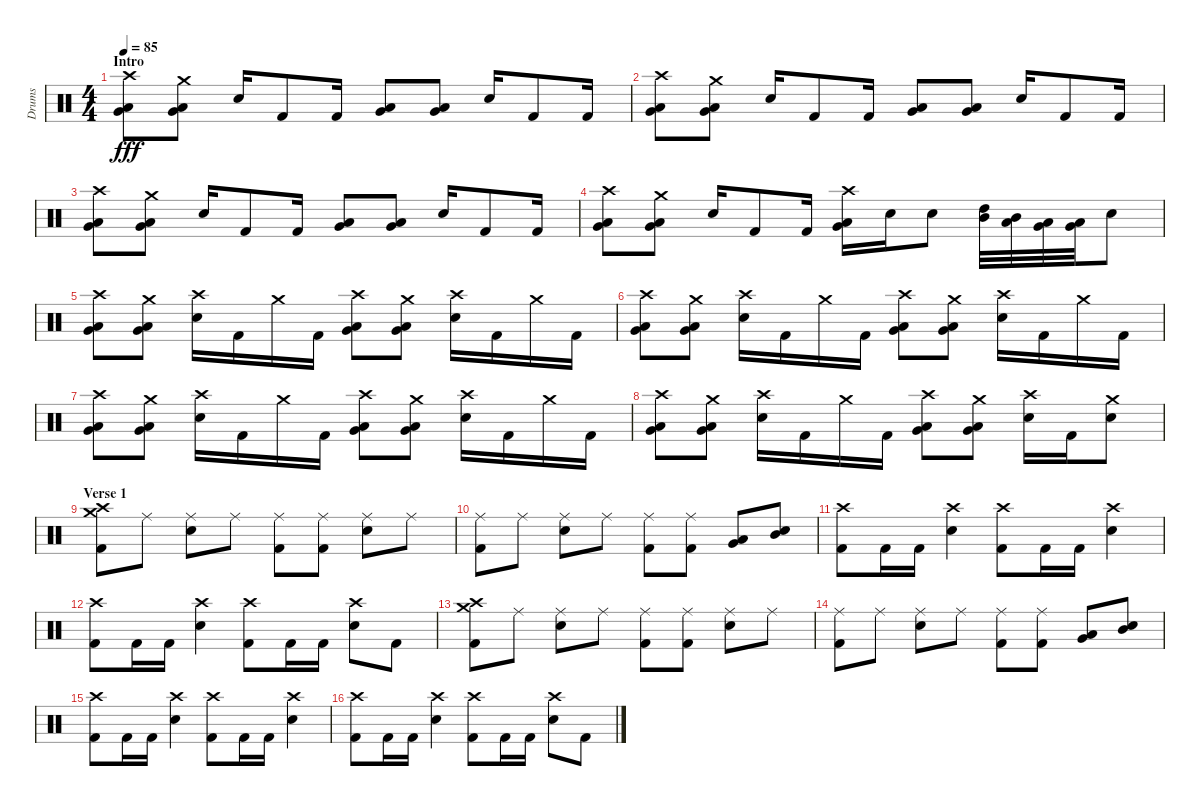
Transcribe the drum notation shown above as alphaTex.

\track ("Drums" "Drums") {instrument percussion}
\staff {score}
\articulation defaults
\ts (4 4)
\section ("" "Intro")
\tempo 85
\clef neutral
\ks c
("Crash high (hit)" "Very Low Tom (hit)" "Low Floor Tom (hit)").8{dy fff} ("Crash medium (hit)" "Very Low Tom (hit)" "Low Floor Tom (hit)").8 "Electric Snare (hit)".16 "Kick (hit) 2".8 "Kick (hit) 2".16 ("Very Low Tom (hit)" "Low Floor Tom (hit)").8 ("Very Low Tom (hit)" "Low Floor Tom (hit)").8 "Electric Snare (hit)".16 "Kick (hit) 2".8 "Kick (hit) 2".16 |
("Crash high (hit)" "Very Low Tom (hit)" "Low Floor Tom (hit)").8 ("Crash medium (hit)" "Very Low Tom (hit)" "Low Floor Tom (hit)").8 "Electric Snare (hit)".16 "Kick (hit) 2".8 "Kick (hit) 2".16 ("Very Low Tom (hit)" "Low Floor Tom (hit)").8 ("Very Low Tom (hit)" "Low Floor Tom (hit)").8 "Electric Snare (hit)".16 "Kick (hit) 2".8 "Kick (hit) 2".16 |
("Crash high (hit)" "Very Low Tom (hit)" "Low Floor Tom (hit)").8 ("Crash medium (hit)" "Very Low Tom (hit)" "Low Floor Tom (hit)").8 "Electric Snare (hit)".16 "Kick (hit) 2".8 "Kick (hit) 2".16 ("Very Low Tom (hit)" "Low Floor Tom (hit)").8 ("Very Low Tom (hit)" "Low Floor Tom (hit)").8 "Electric Snare (hit)".16 "Kick (hit) 2".8 "Kick (hit) 2".16 |
("Crash high (hit)" "Very Low Tom (hit)" "Low Floor Tom (hit)").8 ("Crash medium (hit)" "Very Low Tom (hit)" "Low Floor Tom (hit)").8 "Electric Snare (hit)".16 "Kick (hit) 2".8 "Kick (hit) 2".16 ("Crash high (hit)" "Very Low Tom (hit)" "Low Floor Tom (hit)").16 "Electric Snare (hit)".16 "Electric Snare (hit)".8 ("High Tom (hit)" "Mid Tom (hit)").32 ("Mid Tom (hit)" "Low Tom (hit)").32 ("Low Tom (hit)" "Very Low Tom (hit)").32 ("Very Low Tom (hit)" "Low Floor Tom (hit)").32 "Electric Snare (hit)".8 |
("Crash high (hit)" "Very Low Tom (hit)" "Low Floor Tom (hit)").8 ("Crash medium (hit)" "Very Low Tom (hit)" "Low Floor Tom (hit)").8 ("Crash high (hit)" "Electric Snare (hit)").16 "Kick (hit) 2".16 "Crash medium (hit)".16 "Kick (hit) 2".16 ("Crash high (hit)" "Very Low Tom (hit)" "Low Floor Tom (hit)").8 ("Crash medium (hit)" "Very Low Tom (hit)" "Low Floor Tom (hit)").8 ("Crash high (hit)" "Electric Snare (hit)").16 "Kick (hit) 2".16 "Crash medium (hit)".16 "Kick (hit) 2".16 |
("Crash high (hit)" "Very Low Tom (hit)" "Low Floor Tom (hit)").8 ("Crash medium (hit)" "Very Low Tom (hit)" "Low Floor Tom (hit)").8 ("Crash high (hit)" "Electric Snare (hit)").16 "Kick (hit) 2".16 "Crash medium (hit)".16 "Kick (hit) 2".16 ("Crash high (hit)" "Very Low Tom (hit)" "Low Floor Tom (hit)").8 ("Crash medium (hit)" "Very Low Tom (hit)" "Low Floor Tom (hit)").8 ("Crash high (hit)" "Electric Snare (hit)").16 "Kick (hit) 2".16 "Crash medium (hit)".16 "Kick (hit) 2".16 |
("Crash high (hit)" "Very Low Tom (hit)" "Low Floor Tom (hit)").8 ("Crash medium (hit)" "Very Low Tom (hit)" "Low Floor Tom (hit)").8 ("Crash high (hit)" "Electric Snare (hit)").16 "Kick (hit) 2".16 "Crash medium (hit)".16 "Kick (hit) 2".16 ("Crash high (hit)" "Very Low Tom (hit)" "Low Floor Tom (hit)").8 ("Crash medium (hit)" "Very Low Tom (hit)" "Low Floor Tom (hit)").8 ("Crash high (hit)" "Electric Snare (hit)").16 "Kick (hit) 2".16 "Crash medium (hit)".16 "Kick (hit) 2".16 |
("Crash high (hit)" "Very Low Tom (hit)" "Low Floor Tom (hit)").8 ("Crash medium (hit)" "Very Low Tom (hit)" "Low Floor Tom (hit)").8 ("Crash high (hit)" "Electric Snare (hit)").16 "Kick (hit) 2".16 "Crash medium (hit)".16 "Kick (hit) 2".16 ("Crash high (hit)" "Very Low Tom (hit)" "Low Floor Tom (hit)").8 ("Crash medium (hit)" "Very Low Tom (hit)" "Low Floor Tom (hit)").8 ("Crash high (hit)" "Electric Snare (hit)").16 "Kick (hit) 2".16 ("Crash medium (hit)" "Electric Snare (hit)").8 |
\section ("" "Verse 1")
("Crash high (hit)" "Crash medium (hit)" "Kick (hit) 2").8 "Ride (middle)".8 ("Ride (middle)" "Electric Snare (hit)").8 "Ride (middle)".8 ("Ride (middle)" "Kick (hit) 2").8 ("Ride (middle)" "Kick (hit) 2").8 ("Ride (middle)" "Electric Snare (hit)").8 "Ride (middle)".8 |
("Ride (middle)" "Kick (hit) 2").8 "Ride (middle)".8 ("Ride (middle)" "Electric Snare (hit)").8 "Ride (middle)".8 ("Ride (middle)" "Kick (hit) 2").8 ("Ride (middle)" "Kick (hit) 2").8 ("Low Tom (hit)" "Very Low Tom (hit)").8 ("Mid Tom (hit)" "Electric Snare (hit)").8 |
("Crash high (hit)" "Kick (hit) 2").8 "Kick (hit) 2".16 "Kick (hit) 2".16 ("Crash high (hit)" "Electric Snare (hit)").4 ("Crash high (hit)" "Kick (hit) 2").8 "Kick (hit) 2".16 "Kick (hit) 2".16 ("Crash high (hit)" "Electric Snare (hit)").4 |
("Crash high (hit)" "Kick (hit) 2").8 "Kick (hit) 2".16 "Kick (hit) 2".16 ("Crash high (hit)" "Electric Snare (hit)").4 ("Crash high (hit)" "Kick (hit) 2").8 "Kick (hit) 2".16 "Kick (hit) 2".16 ("Crash high (hit)" "Electric Snare (hit)").8 "Kick (hit) 2".8 |
("Crash high (hit)" "Crash medium (hit)" "Kick (hit) 2").8 "Ride (middle)".8 ("Ride (middle)" "Electric Snare (hit)").8 "Ride (middle)".8 ("Ride (middle)" "Kick (hit) 2").8 ("Ride (middle)" "Kick (hit) 2").8 ("Ride (middle)" "Electric Snare (hit)").8 "Ride (middle)".8 |
("Ride (middle)" "Kick (hit) 2").8 "Ride (middle)".8 ("Ride (middle)" "Electric Snare (hit)").8 "Ride (middle)".8 ("Ride (middle)" "Kick (hit) 2").8 ("Ride (middle)" "Kick (hit) 2").8 ("Low Tom (hit)" "Very Low Tom (hit)").8 ("Mid Tom (hit)" "Electric Snare (hit)").8 |
("Crash high (hit)" "Kick (hit) 2").8 "Kick (hit) 2".16 "Kick (hit) 2".16 ("Crash high (hit)" "Electric Snare (hit)").4 ("Crash high (hit)" "Kick (hit) 2").8 "Kick (hit) 2".16 "Kick (hit) 2".16 ("Crash high (hit)" "Electric Snare (hit)").4 |
("Crash high (hit)" "Kick (hit) 2").8 "Kick (hit) 2".16 "Kick (hit) 2".16 ("Crash high (hit)" "Electric Snare (hit)").4 ("Crash high (hit)" "Kick (hit) 2").8 "Kick (hit) 2".16 "Kick (hit) 2".16 ("Crash high (hit)" "Electric Snare (hit)").8 "Kick (hit) 2".8
